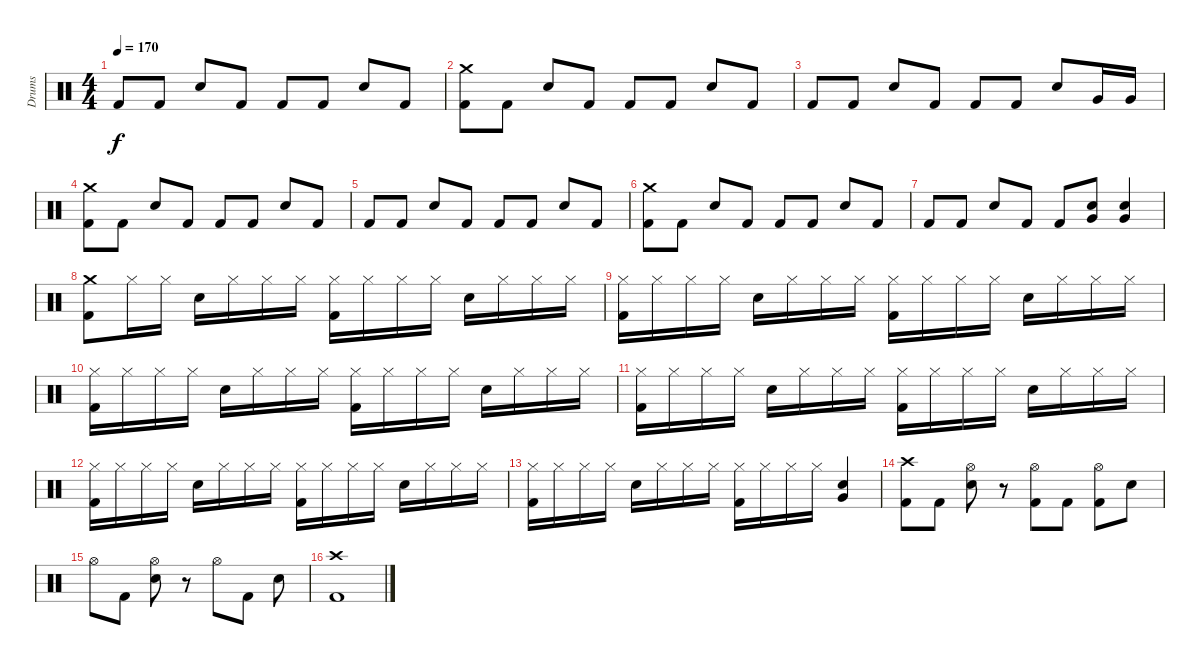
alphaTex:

\track ("Drums" "Drums") {instrument percussion}
\staff {score}
\articulation defaults
\ts (4 4)
\tempo 170
\clef neutral
\ks c "Kick (hit) 2".8{dy f} "Kick (hit) 2".8 "Snare (hit) 2".8 "Kick (hit) 2".8 "Kick (hit) 2".8 "Kick (hit) 2".8 "Snare (hit) 2".8 "Kick (hit) 2".8
|
("Crash medium (hit)" "Kick (hit) 2").8 "Kick (hit) 2".8 "Snare (hit) 2".8 "Kick (hit) 2".8 "Kick (hit) 2".8 "Kick (hit) 2".8 "Snare (hit) 2".8 "Kick (hit) 2".8 |
"Kick (hit) 2".8 "Kick (hit) 2".8 "Snare (hit) 2".8 "Kick (hit) 2".8 "Kick (hit) 2".8 "Kick (hit) 2".8 "Snare (hit) 2".8 "Very Low Tom (hit)".16 "Very Low Tom (hit)".16 |
("Crash medium (hit)" "Kick (hit) 2").8 "Kick (hit) 2".8 "Snare (hit) 2".8 "Kick (hit) 2".8 "Kick (hit) 2".8 "Kick (hit) 2".8 "Snare (hit) 2".8 "Kick (hit) 2".8 |
"Kick (hit) 2".8 "Kick (hit) 2".8 "Snare (hit) 2".8 "Kick (hit) 2".8 "Kick (hit) 2".8 "Kick (hit) 2".8 "Snare (hit) 2".8 "Kick (hit) 2".8 |
("Crash medium (hit)" "Kick (hit) 2").8 "Kick (hit) 2".8 "Snare (hit) 2".8 "Kick (hit) 2".8 "Kick (hit) 2".8 "Kick (hit) 2".8 "Snare (hit) 2".8 "Kick (hit) 2".8 |
"Kick (hit) 2".8 "Kick (hit) 2".8 "Snare (hit) 2".8 "Kick (hit) 2".8 "Kick (hit) 2".8 ("Snare (hit) 2" "Very Low Tom (hit)").8 ("Snare (hit) 2" "Very Low Tom (hit)").4 |
("Crash medium (hit)" "Kick (hit) 2").8 "Hi-Hat (closed)".16 "Hi-Hat (closed)".16 "Snare (hit) 2".16 "Hi-Hat (closed)".16 "Hi-Hat (closed)".16 "Hi-Hat (closed)".16 ("Hi-Hat (closed)" "Kick (hit) 2").16 "Hi-Hat (closed)".16 "Hi-Hat (closed)".16 "Hi-Hat (closed)".16 "Snare (hit) 2".16 "Hi-Hat (closed)".16 "Hi-Hat (closed)".16 "Hi-Hat (closed)".16 |
("Hi-Hat (closed)" "Kick (hit) 2").16 "Hi-Hat (closed)".16 "Hi-Hat (closed)".16 "Hi-Hat (closed)".16 "Snare (hit) 2".16 "Hi-Hat (closed)".16 "Hi-Hat (closed)".16 "Hi-Hat (closed)".16 ("Hi-Hat (closed)" "Kick (hit) 2").16 "Hi-Hat (closed)".16 "Hi-Hat (closed)".16 "Hi-Hat (closed)".16 "Snare (hit) 2".16 "Hi-Hat (closed)".16 "Hi-Hat (closed)".16 "Hi-Hat (closed)".16 |
("Hi-Hat (closed)" "Kick (hit) 2").16 "Hi-Hat (closed)".16 "Hi-Hat (closed)".16 "Hi-Hat (closed)".16 "Snare (hit) 2".16 "Hi-Hat (closed)".16 "Hi-Hat (closed)".16 "Hi-Hat (closed)".16 ("Hi-Hat (closed)" "Kick (hit) 2").16 "Hi-Hat (closed)".16 "Hi-Hat (closed)".16 "Hi-Hat (closed)".16 "Snare (hit) 2".16 "Hi-Hat (closed)".16 "Hi-Hat (closed)".16 "Hi-Hat (closed)".16 |
("Hi-Hat (closed)" "Kick (hit) 2").16 "Hi-Hat (closed)".16 "Hi-Hat (closed)".16 "Hi-Hat (closed)".16 "Snare (hit) 2".16 "Hi-Hat (closed)".16 "Hi-Hat (closed)".16 "Hi-Hat (closed)".16 ("Hi-Hat (closed)" "Kick (hit) 2").16 "Hi-Hat (closed)".16 "Hi-Hat (closed)".16 "Hi-Hat (closed)".16 "Snare (hit) 2".16 "Hi-Hat (closed)".16 "Hi-Hat (closed)".16 "Hi-Hat (closed)".16 |
("Hi-Hat (closed)" "Kick (hit) 2").16 "Hi-Hat (closed)".16 "Hi-Hat (closed)".16 "Hi-Hat (closed)".16 "Snare (hit) 2".16 "Hi-Hat (closed)".16 "Hi-Hat (closed)".16 "Hi-Hat (closed)".16 ("Hi-Hat (closed)" "Kick (hit) 2").16 "Hi-Hat (closed)".16 "Hi-Hat (closed)".16 "Hi-Hat (closed)".16 "Snare (hit) 2".16 "Hi-Hat (closed)".16 "Hi-Hat (closed)".16 "Hi-Hat (closed)".16 |
("Hi-Hat (closed)" "Kick (hit) 2").16 "Hi-Hat (closed)".16 "Hi-Hat (closed)".16 "Hi-Hat (closed)".16 "Snare (hit) 2".16 "Hi-Hat (closed)".16 "Hi-Hat (closed)".16 "Hi-Hat (closed)".16 ("Hi-Hat (closed)" "Kick (hit) 2").16 "Hi-Hat (closed)".16 "Hi-Hat (closed)".16 "Hi-Hat (closed)".16 ("Snare (hit) 2" "Very Low Tom (hit)").4 |
("Crash high (hit)" "Kick (hit) 2").8 "Kick (hit) 2".8 ("Hi-Hat (open)" "Snare (hit) 2").8 r.8 ("Hi-Hat (open)" "Kick (hit) 2").8 "Kick (hit) 2".8 ("Hi-Hat (open)" "Kick (hit) 2").8 "Snare (hit) 2".8 |
"Hi-Hat (open)".8 "Kick (hit) 2".8 ("Hi-Hat (open)" "Snare (hit) 2").8 r.8 "Hi-Hat (open)".8 "Kick (hit) 2".8 "Snare (hit) 2".8 |
("Crash high (hit)" "Kick (hit) 2").1
